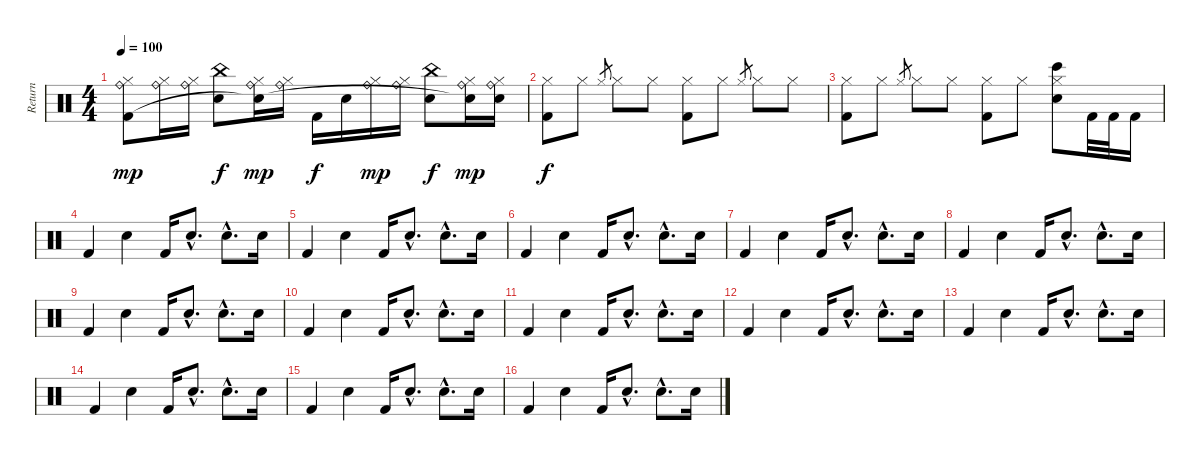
\track ("    Return" "    Return") {instrument percussion}
\staff {score}
\articulation defaults
\ts (4 4)
\tempo 100
\clef neutral
\ks c
("Hi-Hat (closed)" "Ride (bell)" "Kick (hit) 2").8{dy mp} ("Hi-Hat (closed)" "Ride (bell)").16 ("Hi-Hat (closed)" "Ride (bell)").16 ("Electric Snare (hit)" "China (hit)").8{dy f} ("Hi-Hat (closed)" "Ride (bell)" "Snare (hit)"{t}).16{dy mp} ("Hi-Hat (closed)" "Ride (bell)").16 "Kick (hit) 2".16{dy f} "Snare (hit) 2".16 ("Hi-Hat (closed)" "Ride (bell)").16{dy mp} ("Hi-Hat (closed)" "Ride (bell)").16 ("Electric Snare (hit)" "China (hit)").8{dy f} ("Hi-Hat (closed)" "Ride (bell)" "Snare (hit)"{t}).16{dy mp} ("Hi-Hat (closed)" "Ride (bell)" "Snare (hit) 2").16 |
("Hi-Hat (closed)" "Kick (hit) 2").8{dy f} "Hi-Hat (closed)".8 "Hi-Hat (closed)".8{gr} "Hi-Hat (closed)".8 "Hi-Hat (closed)".8 ("Hi-Hat (closed)" "Kick (hit) 2").8 "Hi-Hat (closed)".8 "Hi-Hat (closed)".8{gr} "Hi-Hat (closed)".8 "Hi-Hat (closed)".8 |
("Hi-Hat (closed)" "Kick (hit) 2").8 "Hi-Hat (closed)".8 "Hi-Hat (closed)".8{gr} "Hi-Hat (closed)".8 "Hi-Hat (closed)".8 ("Hi-Hat (closed)" "Kick (hit) 2").8 "Hi-Hat (closed)".8 ("Hi-Hat (closed)" "Bongo High (hit)" "Snare (hit) 2").8 "Kick (hit) 2".32 "Kick (hit) 2".32 "Kick (hit) 2".16 |
"Kick (hit) 2".4 "Electric Snare (hit)".4 "Kick (hit) 2".16 "Snare (hit) 2"{hac}.8{d} "Electric Snare (hit)"{hac}.8{d} "Snare (hit) 2".16 |
"Kick (hit) 2".4 "Electric Snare (hit)".4 "Kick (hit) 2".16 "Snare (hit) 2"{hac}.8{d} "Electric Snare (hit)"{hac}.8{d} "Snare (hit) 2".16 |
"Kick (hit) 2".4 "Electric Snare (hit)".4 "Kick (hit) 2".16 "Snare (hit) 2"{hac}.8{d} "Electric Snare (hit)"{hac}.8{d} "Snare (hit) 2".16 |
"Kick (hit) 2".4 "Electric Snare (hit)".4 "Kick (hit) 2".16 "Snare (hit) 2"{hac}.8{d} "Electric Snare (hit)"{hac}.8{d} "Snare (hit) 2".16 |
"Kick (hit) 2".4 "Electric Snare (hit)".4 "Kick (hit) 2".16 "Snare (hit) 2"{hac}.8{d} "Electric Snare (hit)"{hac}.8{d} "Snare (hit) 2".16 |
"Kick (hit) 2".4 "Electric Snare (hit)".4 "Kick (hit) 2".16 "Snare (hit) 2"{hac}.8{d} "Electric Snare (hit)"{hac}.8{d} "Snare (hit) 2".16 |
"Kick (hit) 2".4 "Electric Snare (hit)".4 "Kick (hit) 2".16 "Snare (hit) 2"{hac}.8{d} "Electric Snare (hit)"{hac}.8{d} "Snare (hit) 2".16 |
"Kick (hit) 2".4 "Electric Snare (hit)".4 "Kick (hit) 2".16 "Snare (hit) 2"{hac}.8{d} "Electric Snare (hit)"{hac}.8{d} "Snare (hit) 2".16 |
"Kick (hit) 2".4 "Electric Snare (hit)".4 "Kick (hit) 2".16 "Snare (hit) 2"{hac}.8{d} "Electric Snare (hit)"{hac}.8{d} "Snare (hit) 2".16 |
"Kick (hit) 2".4 "Electric Snare (hit)".4 "Kick (hit) 2".16 "Snare (hit) 2"{hac}.8{d} "Electric Snare (hit)"{hac}.8{d} "Snare (hit) 2".16 |
"Kick (hit) 2".4 "Electric Snare (hit)".4 "Kick (hit) 2".16 "Snare (hit) 2"{hac}.8{d} "Electric Snare (hit)"{hac}.8{d} "Snare (hit) 2".16 |
"Kick (hit) 2".4 "Electric Snare (hit)".4 "Kick (hit) 2".16 "Snare (hit) 2"{hac}.8{d} "Electric Snare (hit)"{hac}.8{d} "Snare (hit) 2".16 |
"Kick (hit) 2".4 "Electric Snare (hit)".4 "Kick (hit) 2".16 "Snare (hit) 2"{hac}.8{d} "Electric Snare (hit)"{hac}.8{d} "Snare (hit) 2".16
